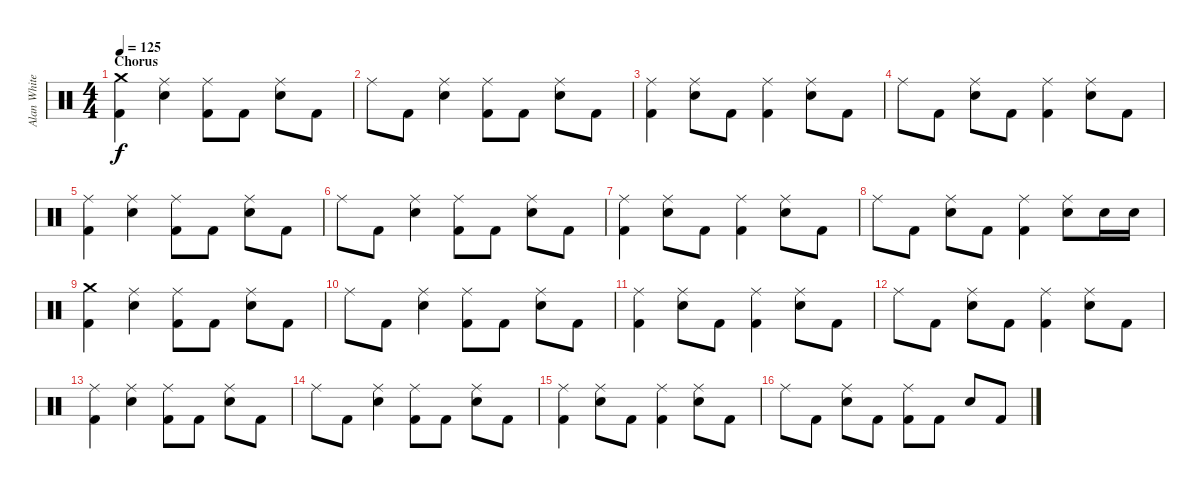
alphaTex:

\track ("Alan White" "Alan White") {instrument percussion}
\staff {score}
\articulation defaults
\ts (4 4)
\section ("" "Chorus")
\tempo 125
\clef neutral
\ks c
("Crash medium (hit)" "Kick (hit) 2").4{dy f} ("Ride (middle)" "Snare (hit) 2").4 ("Ride (middle)" "Kick (hit) 2").8 "Kick (hit) 2".8 ("Ride (middle)" "Snare (hit) 2").8 "Kick (hit) 2".8 |
"Ride (middle)".8 "Kick (hit) 2".8 ("Ride (middle)" "Snare (hit) 2").4 ("Ride (middle)" "Kick (hit) 2").8 "Kick (hit) 2".8 ("Ride (middle)" "Snare (hit) 2").8 "Kick (hit) 2".8 |
("Ride (middle)" "Kick (hit) 2").4 ("Ride (middle)" "Snare (hit) 2").8 "Kick (hit) 2".8 ("Ride (middle)" "Kick (hit) 2").4 ("Ride (middle)" "Snare (hit) 2").8 "Kick (hit) 2".8 |
"Ride (middle)".8 "Kick (hit) 2".8 ("Ride (middle)" "Snare (hit) 2").8 "Kick (hit) 2".8 ("Ride (middle)" "Kick (hit) 2").4 ("Ride (middle)" "Snare (hit) 2").8 "Kick (hit) 2".8 |
("Ride (middle)" "Kick (hit) 2").4 ("Ride (middle)" "Snare (hit) 2").4 ("Ride (middle)" "Kick (hit) 2").8 "Kick (hit) 2".8 ("Ride (middle)" "Snare (hit) 2").8 "Kick (hit) 2".8 |
"Ride (middle)".8 "Kick (hit) 2".8 ("Ride (middle)" "Snare (hit) 2").4 ("Ride (middle)" "Kick (hit) 2").8 "Kick (hit) 2".8 ("Ride (middle)" "Snare (hit) 2").8 "Kick (hit) 2".8 |
("Ride (middle)" "Kick (hit) 2").4 ("Ride (middle)" "Snare (hit) 2").8 "Kick (hit) 2".8 ("Ride (middle)" "Kick (hit) 2").4 ("Ride (middle)" "Snare (hit) 2").8 "Kick (hit) 2".8 |
"Ride (middle)".8 "Kick (hit) 2".8 ("Ride (middle)" "Snare (hit) 2").8 "Kick (hit) 2".8 ("Ride (middle)" "Kick (hit) 2").4 ("Ride (middle)" "Snare (hit) 2").8 "Snare (hit) 2".16 "Snare (hit) 2".16 |
("Crash medium (hit)" "Kick (hit) 2").4 ("Ride (middle)" "Snare (hit) 2").4 ("Ride (middle)" "Kick (hit) 2").8 "Kick (hit) 2".8 ("Ride (middle)" "Snare (hit) 2").8 "Kick (hit) 2".8 |
"Ride (middle)".8 "Kick (hit) 2".8 ("Ride (middle)" "Snare (hit) 2").4 ("Ride (middle)" "Kick (hit) 2").8 "Kick (hit) 2".8 ("Ride (middle)" "Snare (hit) 2").8 "Kick (hit) 2".8 |
("Ride (middle)" "Kick (hit) 2").4 ("Ride (middle)" "Snare (hit) 2").8 "Kick (hit) 2".8 ("Ride (middle)" "Kick (hit) 2").4 ("Ride (middle)" "Snare (hit) 2").8 "Kick (hit) 2".8 |
"Ride (middle)".8 "Kick (hit) 2".8 ("Ride (middle)" "Snare (hit) 2").8 "Kick (hit) 2".8 ("Ride (middle)" "Kick (hit) 2").4 ("Ride (middle)" "Snare (hit) 2").8 "Kick (hit) 2".8 |
("Ride (middle)" "Kick (hit) 2").4 ("Ride (middle)" "Snare (hit) 2").4 ("Ride (middle)" "Kick (hit) 2").8 "Kick (hit) 2".8 ("Ride (middle)" "Snare (hit) 2").8 "Kick (hit) 2".8 |
"Ride (middle)".8 "Kick (hit) 2".8 ("Ride (middle)" "Snare (hit) 2").4 ("Ride (middle)" "Kick (hit) 2").8 "Kick (hit) 2".8 ("Ride (middle)" "Snare (hit) 2").8 "Kick (hit) 2".8 |
("Ride (middle)" "Kick (hit) 2").4 ("Ride (middle)" "Snare (hit) 2").8 "Kick (hit) 2".8 ("Ride (middle)" "Kick (hit) 2").4 ("Ride (middle)" "Snare (hit) 2").8 "Kick (hit) 2".8 |
"Ride (middle)".8 "Kick (hit) 2".8 ("Ride (middle)" "Snare (hit) 2").8 "Kick (hit) 2".8 ("Ride (middle)" "Kick (hit) 2").8 "Kick (hit) 2".8 "Snare (hit) 2".8 "Kick (hit) 2".8
